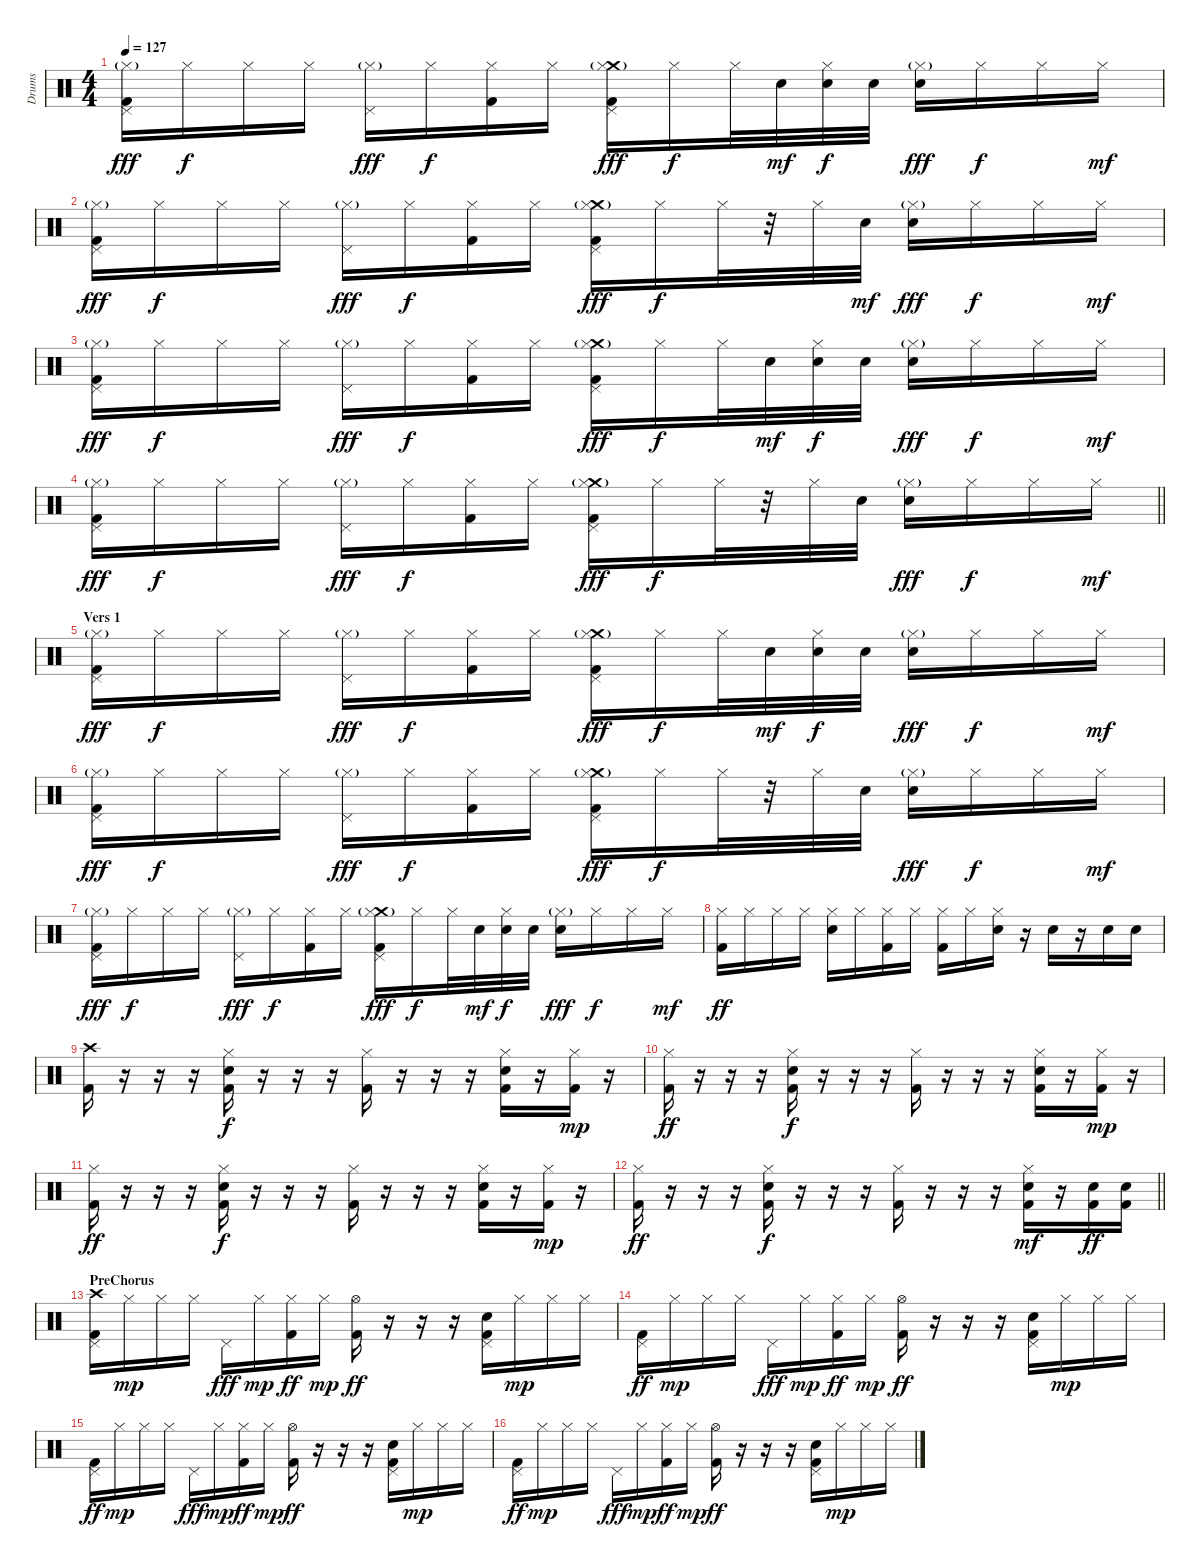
\track ("Drums" "Drums") {instrument percussion}
\staff {score}
\articulation defaults
\ts (4 4)
\tempo 127
\clef neutral
\ks c
("Hi-Hat (closed)"{g} "Pedal Hi-Hat (hit)" "Kick (hit) 2").16{dy fff} "Hi-Hat (closed)".16{dy f} "Hi-Hat (closed)".16 "Hi-Hat (closed)".16 ("Hi-Hat (closed)"{g} "Pedal Hi-Hat (hit)").16{dy fff} "Hi-Hat (closed)".16{dy f} ("Hi-Hat (closed)" "Kick (hit) 2").16 "Hi-Hat (closed)".16 ("Crash medium (hit)" "Hi-Hat (closed)"{g} "Pedal Hi-Hat (hit)" "Kick (hit) 2").16{dy fff} "Hi-Hat (closed)".16{dy f} "Hi-Hat (closed)".32 "Snare (hit) 2".32{dy mf} ("Hi-Hat (closed)" "Snare (hit) 2").32{dy f} "Snare (hit) 2".32 ("Hi-Hat (closed)"{g} "Snare (hit) 2").16{dy fff} "Hi-Hat (closed)".16{dy f} "Hi-Hat (closed)".16 "Hi-Hat (closed)".16{dy mf} |
("Hi-Hat (closed)"{g} "Pedal Hi-Hat (hit)" "Kick (hit) 2").16{dy fff} "Hi-Hat (closed)".16{dy f} "Hi-Hat (closed)".16 "Hi-Hat (closed)".16 ("Hi-Hat (closed)"{g} "Pedal Hi-Hat (hit)").16{dy fff} "Hi-Hat (closed)".16{dy f} ("Hi-Hat (closed)" "Kick (hit) 2").16 "Hi-Hat (closed)".16 ("Crash medium (hit)" "Hi-Hat (closed)"{g} "Pedal Hi-Hat (hit)" "Kick (hit) 2").16{dy fff} "Hi-Hat (closed)".16{dy f} "Hi-Hat (closed)".32 r.32 "Hi-Hat (closed)".32 "Snare (hit) 2".32{dy mf} ("Hi-Hat (closed)"{g} "Snare (hit) 2").16{dy fff} "Hi-Hat (closed)".16{dy f} "Hi-Hat (closed)".16 "Hi-Hat (closed)".16{dy mf} |
("Hi-Hat (closed)"{g} "Pedal Hi-Hat (hit)" "Kick (hit) 2").16{dy fff} "Hi-Hat (closed)".16{dy f} "Hi-Hat (closed)".16 "Hi-Hat (closed)".16 ("Hi-Hat (closed)"{g} "Pedal Hi-Hat (hit)").16{dy fff} "Hi-Hat (closed)".16{dy f} ("Hi-Hat (closed)" "Kick (hit) 2").16 "Hi-Hat (closed)".16 ("Crash medium (hit)" "Hi-Hat (closed)"{g} "Pedal Hi-Hat (hit)" "Kick (hit) 2").16{dy fff} "Hi-Hat (closed)".16{dy f} "Hi-Hat (closed)".32 "Snare (hit) 2".32{dy mf} ("Hi-Hat (closed)" "Snare (hit) 2").32{dy f} "Snare (hit) 2".32 ("Hi-Hat (closed)"{g} "Snare (hit) 2").16{dy fff} "Hi-Hat (closed)".16{dy f} "Hi-Hat (closed)".16 "Hi-Hat (closed)".16{dy mf} |
\barLineRight lightlight
("Hi-Hat (closed)"{g} "Pedal Hi-Hat (hit)" "Kick (hit) 2").16{dy fff} "Hi-Hat (closed)".16{dy f} "Hi-Hat (closed)".16 "Hi-Hat (closed)".16 ("Hi-Hat (closed)"{g} "Pedal Hi-Hat (hit)").16{dy fff} "Hi-Hat (closed)".16{dy f} ("Hi-Hat (closed)" "Kick (hit) 2").16 "Hi-Hat (closed)".16 ("Crash medium (hit)" "Hi-Hat (closed)"{g} "Pedal Hi-Hat (hit)" "Kick (hit) 2").16{dy fff} "Hi-Hat (closed)".16{dy f} "Hi-Hat (closed)".32 r.32 "Hi-Hat (closed)".32 "Snare (hit) 2".32 ("Hi-Hat (closed)"{g} "Snare (hit) 2").16{dy fff} "Hi-Hat (closed)".16{dy f} "Hi-Hat (closed)".16 "Hi-Hat (closed)".16{dy mf} |
\section ("" "Vers 1")
("Hi-Hat (closed)"{g} "Pedal Hi-Hat (hit)" "Kick (hit) 2").16{dy fff} "Hi-Hat (closed)".16{dy f} "Hi-Hat (closed)".16 "Hi-Hat (closed)".16 ("Hi-Hat (closed)"{g} "Pedal Hi-Hat (hit)").16{dy fff} "Hi-Hat (closed)".16{dy f} ("Hi-Hat (closed)" "Kick (hit) 2").16 "Hi-Hat (closed)".16 ("Crash medium (hit)" "Hi-Hat (closed)"{g} "Pedal Hi-Hat (hit)" "Kick (hit) 2").16{dy fff} "Hi-Hat (closed)".16{dy f} "Hi-Hat (closed)".32 "Snare (hit) 2".32{dy mf} ("Hi-Hat (closed)" "Snare (hit) 2").32{dy f} "Snare (hit) 2".32 ("Hi-Hat (closed)"{g} "Snare (hit) 2").16{dy fff} "Hi-Hat (closed)".16{dy f} "Hi-Hat (closed)".16 "Hi-Hat (closed)".16{dy mf} |
("Hi-Hat (closed)"{g} "Pedal Hi-Hat (hit)" "Kick (hit) 2").16{dy fff} "Hi-Hat (closed)".16{dy f} "Hi-Hat (closed)".16 "Hi-Hat (closed)".16 ("Hi-Hat (closed)"{g} "Pedal Hi-Hat (hit)").16{dy fff} "Hi-Hat (closed)".16{dy f} ("Hi-Hat (closed)" "Kick (hit) 2").16 "Hi-Hat (closed)".16 ("Crash medium (hit)" "Hi-Hat (closed)"{g} "Pedal Hi-Hat (hit)" "Kick (hit) 2").16{dy fff} "Hi-Hat (closed)".16{dy f} "Hi-Hat (closed)".32 r.32 "Hi-Hat (closed)".32 "Snare (hit) 2".32 ("Hi-Hat (closed)"{g} "Snare (hit) 2").16{dy fff} "Hi-Hat (closed)".16{dy f} "Hi-Hat (closed)".16 "Hi-Hat (closed)".16{dy mf} |
("Hi-Hat (closed)"{g} "Pedal Hi-Hat (hit)" "Kick (hit) 2").16{dy fff} "Hi-Hat (closed)".16{dy f} "Hi-Hat (closed)".16 "Hi-Hat (closed)".16 ("Hi-Hat (closed)"{g} "Pedal Hi-Hat (hit)").16{dy fff} "Hi-Hat (closed)".16{dy f} ("Hi-Hat (closed)" "Kick (hit) 2").16 "Hi-Hat (closed)".16 ("Crash medium (hit)" "Hi-Hat (closed)"{g} "Pedal Hi-Hat (hit)" "Kick (hit) 2").16{dy fff} "Hi-Hat (closed)".16{dy f} "Hi-Hat (closed)".32 "Snare (hit) 2".32{dy mf} ("Hi-Hat (closed)" "Snare (hit) 2").32{dy f} "Snare (hit) 2".32 ("Hi-Hat (closed)"{g} "Snare (hit) 2").16{dy fff} "Hi-Hat (closed)".16{dy f} "Hi-Hat (closed)".16 "Hi-Hat (closed)".16{dy mf} |
("Hi-Hat (closed)" "Kick (hit) 2").16{dy ff} "Hi-Hat (closed)".16 "Hi-Hat (closed)".16 "Hi-Hat (closed)".16 ("Hi-Hat (closed)" "Snare (hit) 2").16 "Hi-Hat (closed)".16 ("Hi-Hat (closed)" "Kick (hit) 2").16 "Hi-Hat (closed)".16 ("Hi-Hat (closed)" "Kick (hit) 2").16 "Hi-Hat (closed)".16 ("Hi-Hat (closed)" "Snare (hit) 2").16 r.16 "Snare (hit) 2".16 r.16 "Snare (hit) 2".16 "Snare (hit) 2".16 |
("Crash high (hit)" "Kick (hit) 2").16 r.16 r.16 r.16 ("Hi-Hat (closed)" "Snare (hit) 2" "Kick (hit) 2").16{dy f} r.16 r.16 r.16 ("Hi-Hat (closed)" "Kick (hit) 2").16 r.16 r.16 r.16 ("Hi-Hat (closed)" "Snare (hit) 2" "Kick (hit) 2").16 r.16 ("Hi-Hat (closed)" "Kick (hit) 2").16{dy mp} r.16 |
("Hi-Hat (closed)" "Kick (hit) 2").16{dy ff} r.16 r.16 r.16 ("Hi-Hat (closed)" "Snare (hit) 2" "Kick (hit) 2").16{dy f} r.16 r.16 r.16 ("Hi-Hat (closed)" "Kick (hit) 2").16 r.16 r.16 r.16 ("Hi-Hat (closed)" "Snare (hit) 2" "Kick (hit) 2").16 r.16 ("Hi-Hat (closed)" "Kick (hit) 2").16{dy mp} r.16 |
("Hi-Hat (closed)" "Kick (hit) 2").16{dy ff} r.16 r.16 r.16 ("Hi-Hat (closed)" "Snare (hit) 2" "Kick (hit) 2").16{dy f} r.16 r.16 r.16 ("Hi-Hat (closed)" "Kick (hit) 2").16 r.16 r.16 r.16 ("Hi-Hat (closed)" "Snare (hit) 2" "Kick (hit) 2").16 r.16 ("Hi-Hat (closed)" "Kick (hit) 2").16{dy mp} r.16 |
\barLineRight lightlight
("Hi-Hat (closed)" "Kick (hit) 2").16{dy ff} r.16 r.16 r.16 ("Hi-Hat (closed)" "Snare (hit) 2" "Kick (hit) 2").16{dy f} r.16 r.16 r.16 ("Hi-Hat (closed)" "Kick (hit) 2").16 r.16 r.16 r.16 ("Hi-Hat (closed)" "Snare (hit) 2" "Kick (hit) 2").16{dy mf} r.16 ("Snare (hit) 2" "Kick (hit) 2").16{dy ff} ("Snare (hit) 2" "Kick (hit) 2").16 |
\section ("" "PreChorus")
("Crash high (hit)" "Pedal Hi-Hat (hit)" "Kick (hit) 2").16 "Hi-Hat (closed)".16{dy mp} "Hi-Hat (closed)".16 "Hi-Hat (closed)".16 "Pedal Hi-Hat (hit)".16{dy fff} "Hi-Hat (closed)".16{dy mp} ("Hi-Hat (closed)" "Kick (hit) 2").16{dy ff} "Hi-Hat (closed)".16{dy mp} ("Hi-Hat (open)" "Kick (hit) 2").16{dy ff} r.16 r.16 r.16 ("Snare (hit) 2" "Pedal Hi-Hat (hit)" "Kick (hit) 2").16 "Hi-Hat (closed)".16{dy mp} "Hi-Hat (closed)".16 "Hi-Hat (closed)".16 |
("Pedal Hi-Hat (hit)" "Kick (hit) 2").16{dy ff} "Hi-Hat (closed)".16{dy mp} "Hi-Hat (closed)".16 "Hi-Hat (closed)".16 "Pedal Hi-Hat (hit)".16{dy fff} "Hi-Hat (closed)".16{dy mp} ("Hi-Hat (closed)" "Kick (hit) 2").16{dy ff} "Hi-Hat (closed)".16{dy mp} ("Hi-Hat (open)" "Kick (hit) 2").16{dy ff} r.16 r.16 r.16 ("Snare (hit) 2" "Pedal Hi-Hat (hit)" "Kick (hit) 2").16 "Hi-Hat (closed)".16{dy mp} "Hi-Hat (closed)".16 "Hi-Hat (closed)".16 |
("Pedal Hi-Hat (hit)" "Kick (hit) 2").16{dy ff} "Hi-Hat (closed)".16{dy mp} "Hi-Hat (closed)".16 "Hi-Hat (closed)".16 "Pedal Hi-Hat (hit)".16{dy fff} "Hi-Hat (closed)".16{dy mp} ("Hi-Hat (closed)" "Kick (hit) 2").16{dy ff} "Hi-Hat (closed)".16{dy mp} ("Hi-Hat (open)" "Kick (hit) 2").16{dy ff} r.16 r.16 r.16 ("Snare (hit) 2" "Pedal Hi-Hat (hit)" "Kick (hit) 2").16 "Hi-Hat (closed)".16{dy mp} "Hi-Hat (closed)".16 "Hi-Hat (closed)".16 |
("Pedal Hi-Hat (hit)" "Kick (hit) 2").16{dy ff} "Hi-Hat (closed)".16{dy mp} "Hi-Hat (closed)".16 "Hi-Hat (closed)".16 "Pedal Hi-Hat (hit)".16{dy fff} "Hi-Hat (closed)".16{dy mp} ("Hi-Hat (closed)" "Kick (hit) 2").16{dy ff} "Hi-Hat (closed)".16{dy mp} ("Hi-Hat (open)" "Kick (hit) 2").16{dy ff} r.16 r.16 r.16 ("Snare (hit) 2" "Pedal Hi-Hat (hit)" "Kick (hit) 2").16 "Hi-Hat (closed)".16{dy mp} "Hi-Hat (closed)".16 "Hi-Hat (closed)".16
